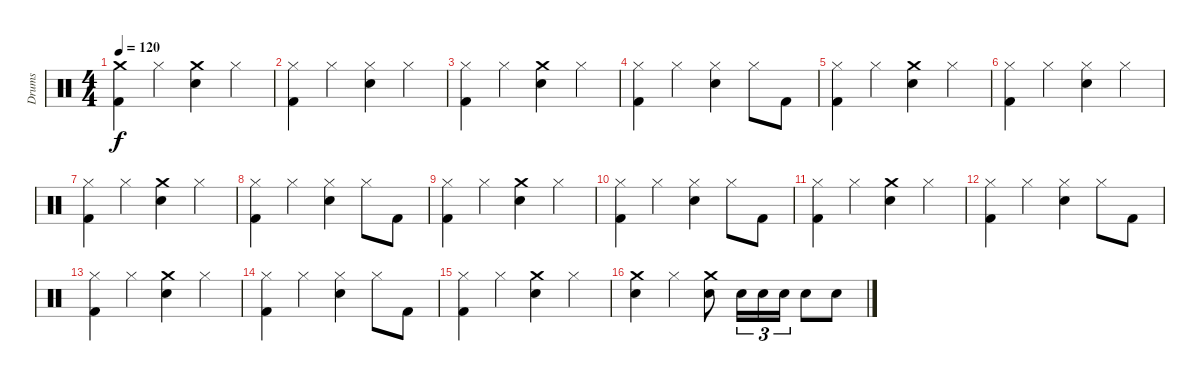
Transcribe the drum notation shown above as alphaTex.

\track ("Drums" "Drums") {instrument percussion}
\staff {score}
\articulation defaults
\ts (4 4)
\tempo 120
\clef neutral
\ks c
("Kick (hit) 2" "Crash medium (hit)").4{dy f} "Hi-Hat (closed)".4 ("Crash medium (hit)" "Snare (hit) 2").4 "Hi-Hat (closed)".4 |
("Hi-Hat (closed)" "Kick (hit) 2").4 "Hi-Hat (closed)".4 ("Snare (hit) 2" "Hi-Hat (closed)").4 "Hi-Hat (closed)".4 |
("Kick (hit) 2" "Hi-Hat (closed)").4 "Hi-Hat (closed)".4 ("Crash medium (hit)" "Snare (hit) 2").4 "Hi-Hat (closed)".4 |
("Kick (hit) 2" "Hi-Hat (closed)").4 "Hi-Hat (closed)".4 ("Snare (hit) 2" "Hi-Hat (closed)").4 "Hi-Hat (closed)".8 "Kick (hit) 2".8 |
("Hi-Hat (closed)" "Kick (hit) 2").4 "Hi-Hat (closed)".4 ("Crash medium (hit)" "Snare (hit) 2").4 "Hi-Hat (closed)".4 |
("Hi-Hat (closed)" "Kick (hit) 2").4 "Hi-Hat (closed)".4 ("Snare (hit) 2" "Hi-Hat (closed)").4 "Hi-Hat (closed)".4 |
("Hi-Hat (closed)" "Kick (hit) 2").4 "Hi-Hat (closed)".4 ("Crash medium (hit)" "Snare (hit) 2").4 "Hi-Hat (closed)".4 |
("Hi-Hat (closed)" "Kick (hit) 2").4 "Hi-Hat (closed)".4 ("Snare (hit) 2" "Hi-Hat (closed)").4 "Hi-Hat (closed)".8 "Kick (hit) 2".8 |
("Hi-Hat (closed)" "Kick (hit) 2").4 "Hi-Hat (closed)".4 ("Crash medium (hit)" "Snare (hit) 2").4 "Hi-Hat (closed)".4 |
("Hi-Hat (closed)" "Kick (hit) 2").4 "Hi-Hat (closed)".4 ("Snare (hit) 2" "Hi-Hat (closed)").4 "Hi-Hat (closed)".8 "Kick (hit) 2".8 |
("Hi-Hat (closed)" "Kick (hit) 2").4 "Hi-Hat (closed)".4 ("Crash medium (hit)" "Snare (hit) 2").4 "Hi-Hat (closed)".4 |
("Hi-Hat (closed)" "Kick (hit) 2").4 "Hi-Hat (closed)".4 ("Snare (hit) 2" "Hi-Hat (closed)").4 "Hi-Hat (closed)".8 "Kick (hit) 2".8 |
("Hi-Hat (closed)" "Kick (hit) 2").4 "Hi-Hat (closed)".4 ("Crash medium (hit)" "Snare (hit) 2").4 "Hi-Hat (closed)".4 |
("Hi-Hat (closed)" "Kick (hit) 2").4 "Hi-Hat (closed)".4 ("Snare (hit) 2" "Hi-Hat (closed)").4 "Hi-Hat (closed)".8 "Kick (hit) 2".8 |
("Hi-Hat (closed)" "Kick (hit) 2").4 "Hi-Hat (closed)".4 ("Crash medium (hit)" "Snare (hit) 2").4 "Hi-Hat (closed)".4 |
("Crash medium (hit)" "Snare (hit) 2").4 "Hi-Hat (closed)".4 ("Crash medium (hit)" "Snare (hit) 2").8 "Snare (hit) 2".16{tu (3 2)} "Snare (hit) 2".16{tu (3 2)} "Snare (hit) 2".16{tu (3 2)} "Snare (hit) 2".8 "Snare (hit) 2".8
